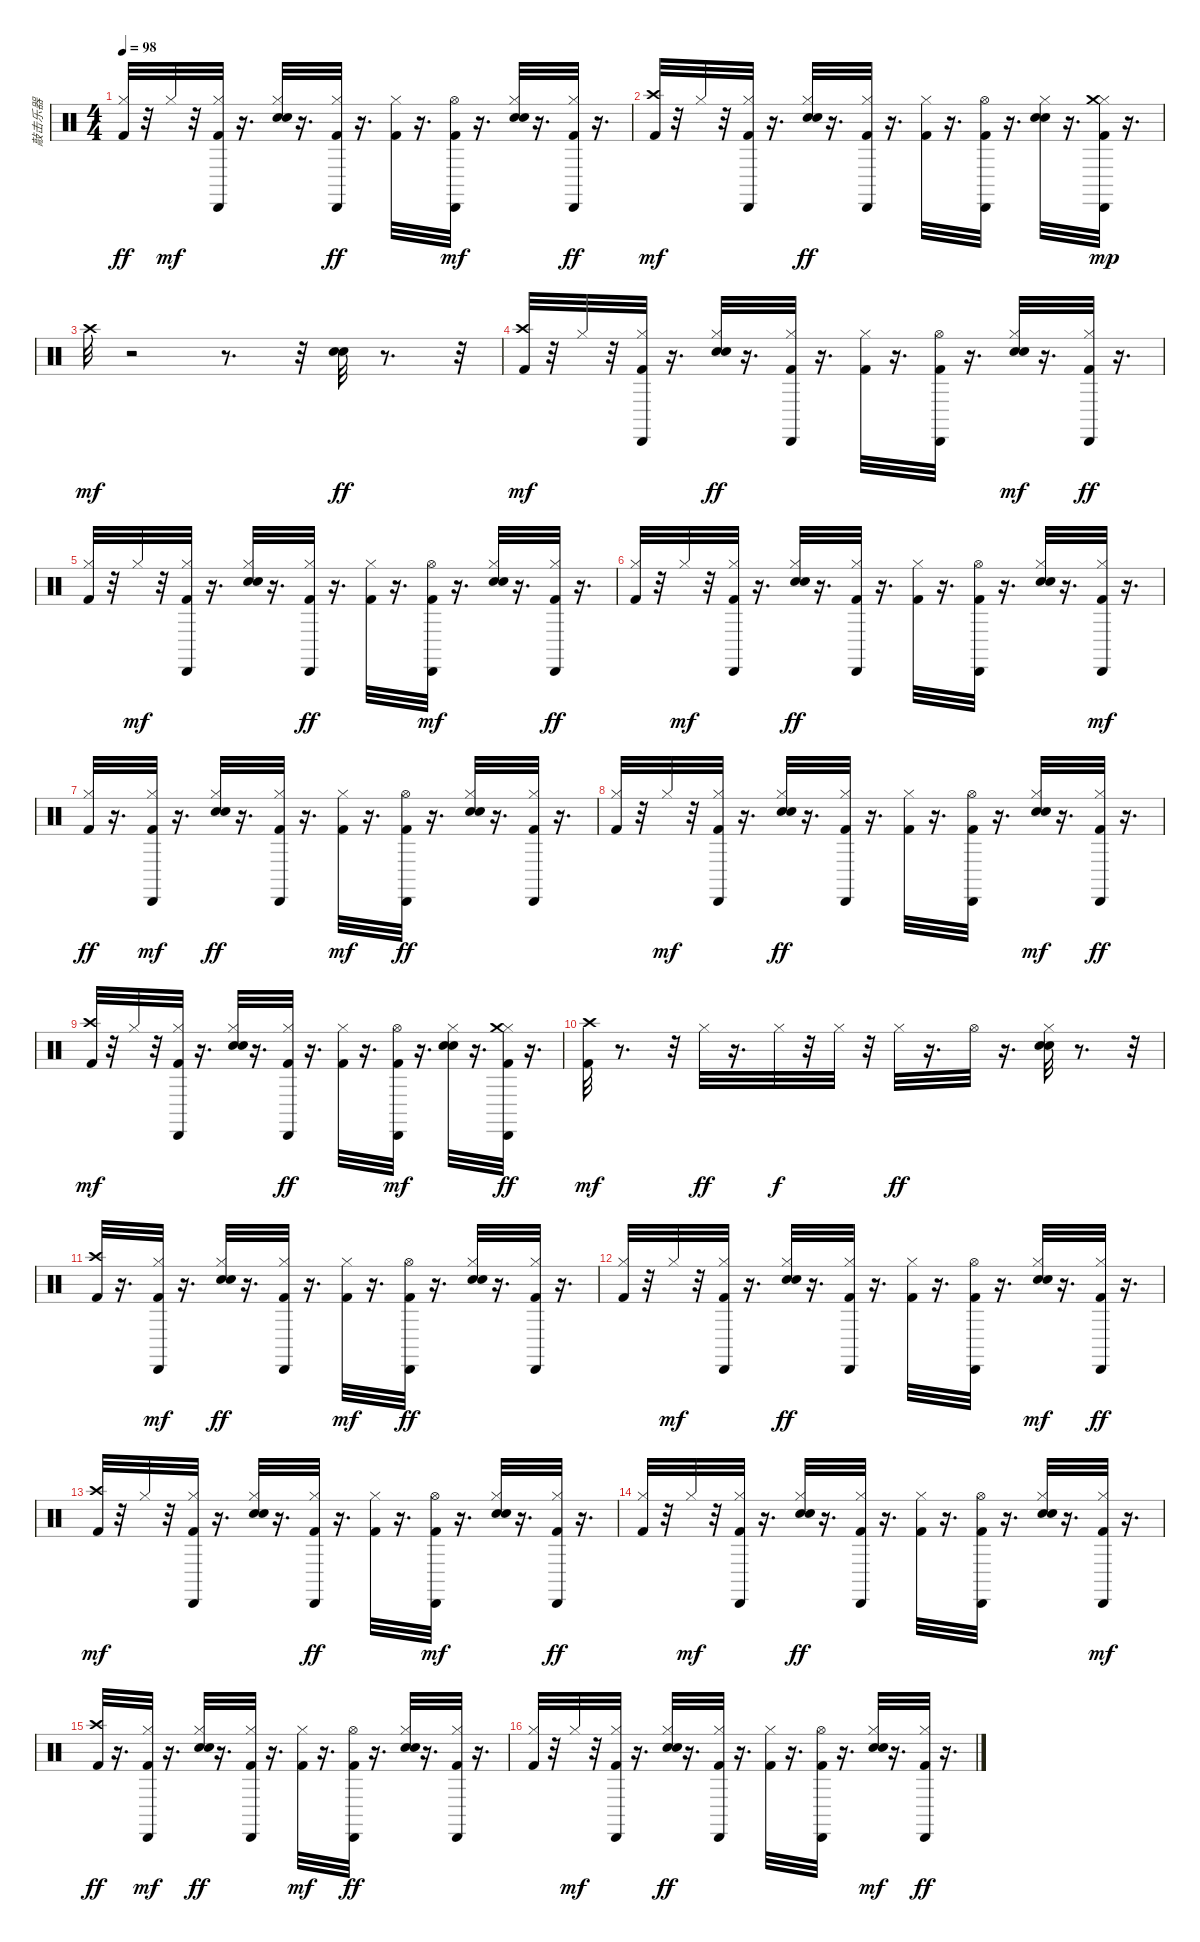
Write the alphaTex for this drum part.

\track ("敲击乐器" "敲击乐器") {instrument percussion}
\staff {score}
\articulation defaults
\ts (4 4)
\tempo 98
\clef neutral
\ks c
("Kick (hit) 2" "Hi-Hat (closed)").32{dy ff} r.32 "Hi-Hat (closed)".32{dy mf} r.32 ("Kick (hit) 2" "Hi-Hat (closed)" "Cabasa (hit)").32 r.16{d} ("Hand Clap (hit)" "Snare (hit) 2" "Hi-Hat (closed)").32 r.16{d} ("Hi-Hat (closed)" "Cabasa (hit)" "Kick (hit) 2").32{dy ff} r.16{d} ("Kick (hit) 2" "Hi-Hat (closed)").32 r.16{d} ("Hi-Hat (open)" "Kick (hit) 2" "Cabasa (hit)").32{dy mf} r.16{d} ("Hand Clap (hit)" "Snare (hit) 2" "Hi-Hat (closed)").32 r.16{d} ("Cabasa (hit)" "Kick (hit) 2" "Hi-Hat (closed)").32{dy ff} r.16{d} |
("Kick (hit) 2" "Crash high (hit)").32{dy mf} r.32 "Hi-Hat (closed)".32 r.32 ("Cabasa (hit)" "Kick (hit) 2" "Hi-Hat (closed)").32 r.16{d} ("Hi-Hat (closed)" "Hand Clap (hit)" "Snare (hit) 2").32{dy ff} r.16{d} ("Cabasa (hit)" "Hi-Hat (closed)" "Kick (hit) 2").32 r.16{d} ("Kick (hit) 2" "Hi-Hat (closed)").32 r.16{d} ("Kick (hit) 2" "Cabasa (hit)" "Hi-Hat (open)").32 r.16{d} ("Hi-Hat (closed)" "Hand Clap (hit)" "Snare (hit) 2").32 r.16{d} ("Kick (hit) 2" "Hi-Hat (closed)" "Cabasa (hit)" "Crash medium (hit)").32{dy mp} r.16{d} |
"Crash high (hit)".32{dy mf} r.2 r.8{d} r.32 ("Snare (hit) 2" "Hand Clap (hit)").32{dy ff} r.8{d} r.32 |
("Kick (hit) 2" "Crash high (hit)").32{dy mf} r.32 "Hi-Hat (closed)".32 r.32 ("Cabasa (hit)" "Kick (hit) 2" "Hi-Hat (closed)").32 r.16{d} ("Hi-Hat (closed)" "Hand Clap (hit)" "Snare (hit) 2").32{dy ff} r.16{d} ("Cabasa (hit)" "Hi-Hat (closed)" "Kick (hit) 2").32 r.16{d} ("Kick (hit) 2" "Hi-Hat (closed)").32 r.16{d} ("Cabasa (hit)" "Kick (hit) 2" "Hi-Hat (open)").32 r.16{d} ("Snare (hit) 2" "Hand Clap (hit)" "Hi-Hat (closed)").32{dy mf} r.16{d} ("Kick (hit) 2" "Cabasa (hit)" "Hi-Hat (closed)").32{dy ff} r.16{d} |
("Kick (hit) 2" "Hi-Hat (closed)").32 r.32 "Hi-Hat (closed)".32{dy mf} r.32 ("Kick (hit) 2" "Hi-Hat (closed)" "Cabasa (hit)").32 r.16{d} ("Hand Clap (hit)" "Snare (hit) 2" "Hi-Hat (closed)").32 r.16{d} ("Hi-Hat (closed)" "Cabasa (hit)" "Kick (hit) 2").32{dy ff} r.16{d} ("Kick (hit) 2" "Hi-Hat (closed)").32 r.16{d} ("Hi-Hat (open)" "Kick (hit) 2" "Cabasa (hit)").32{dy mf} r.16{d} ("Hand Clap (hit)" "Snare (hit) 2" "Hi-Hat (closed)").32 r.16{d} ("Cabasa (hit)" "Kick (hit) 2" "Hi-Hat (closed)").32{dy ff} r.16{d} |
("Kick (hit) 2" "Hi-Hat (closed)").32 r.32 "Hi-Hat (closed)".32{dy mf} r.32 ("Cabasa (hit)" "Kick (hit) 2" "Hi-Hat (closed)").32 r.16{d} ("Hi-Hat (closed)" "Hand Clap (hit)" "Snare (hit) 2").32{dy ff} r.16{d} ("Cabasa (hit)" "Hi-Hat (closed)" "Kick (hit) 2").32 r.16{d} ("Kick (hit) 2" "Hi-Hat (closed)").32 r.16{d} ("Kick (hit) 2" "Cabasa (hit)" "Hi-Hat (open)").32 r.16{d} ("Hi-Hat (closed)" "Hand Clap (hit)" "Snare (hit) 2").32 r.16{d} ("Kick (hit) 2" "Hi-Hat (closed)" "Cabasa (hit)").32{dy mf} r.16{d} |
("Hi-Hat (closed)" "Kick (hit) 2").32{dy ff} r.16{d} ("Cabasa (hit)" "Hi-Hat (closed)" "Kick (hit) 2").32{dy mf} r.16{d} ("Hi-Hat (closed)" "Snare (hit) 2" "Hand Clap (hit)").32{dy ff} r.16{d} ("Cabasa (hit)" "Kick (hit) 2" "Hi-Hat (closed)").32 r.16{d} ("Kick (hit) 2" "Hi-Hat (closed)").32{dy mf} r.16{d} ("Cabasa (hit)" "Kick (hit) 2" "Hi-Hat (open)").32{dy ff} r.16{d} ("Hi-Hat (closed)" "Snare (hit) 2" "Hand Clap (hit)").32 r.16{d} ("Cabasa (hit)" "Hi-Hat (closed)" "Kick (hit) 2").32 r.16{d} |
("Kick (hit) 2" "Hi-Hat (closed)").32 r.32 "Hi-Hat (closed)".32{dy mf} r.32 ("Cabasa (hit)" "Kick (hit) 2" "Hi-Hat (closed)").32 r.16{d} ("Hi-Hat (closed)" "Hand Clap (hit)" "Snare (hit) 2").32{dy ff} r.16{d} ("Cabasa (hit)" "Hi-Hat (closed)" "Kick (hit) 2").32 r.16{d} ("Kick (hit) 2" "Hi-Hat (closed)").32 r.16{d} ("Cabasa (hit)" "Kick (hit) 2" "Hi-Hat (open)").32 r.16{d} ("Snare (hit) 2" "Hand Clap (hit)" "Hi-Hat (closed)").32{dy mf} r.16{d} ("Kick (hit) 2" "Cabasa (hit)" "Hi-Hat (closed)").32{dy ff} r.16{d} |
("Kick (hit) 2" "Crash high (hit)").32{dy mf} r.32 "Hi-Hat (closed)".32 r.32 ("Kick (hit) 2" "Hi-Hat (closed)" "Cabasa (hit)").32 r.16{d} ("Hand Clap (hit)" "Snare (hit) 2" "Hi-Hat (closed)").32 r.16{d} ("Hi-Hat (closed)" "Cabasa (hit)" "Kick (hit) 2").32{dy ff} r.16{d} ("Kick (hit) 2" "Hi-Hat (closed)").32 r.16{d} ("Hi-Hat (open)" "Kick (hit) 2" "Cabasa (hit)").32{dy mf} r.16{d} ("Hand Clap (hit)" "Snare (hit) 2" "Hi-Hat (closed)").32 r.16{d} ("Hi-Hat (closed)" "Crash medium (hit)" "Cabasa (hit)" "Kick (hit) 2").32{dy ff} r.16{d} |
("Kick (hit) 2" "Crash high (hit)").32{dy mf} r.8{d} r.32 "Hi-Hat (closed)".32{dy ff} r.16{d} "Hi-Hat (closed)".32{dy f} r.32 "Hi-Hat (closed)".32 r.32 "Hi-Hat (closed)".32{dy ff} r.16{d} "Hi-Hat (open)".32 r.16{d} ("Hi-Hat (closed)" "Hand Clap (hit)" "Snare (hit) 2").32 r.8{d} r.32 |
("Crash high (hit)" "Kick (hit) 2").32 r.16{d} ("Cabasa (hit)" "Hi-Hat (closed)" "Kick (hit) 2").32{dy mf} r.16{d} ("Hi-Hat (closed)" "Snare (hit) 2" "Hand Clap (hit)").32{dy ff} r.16{d} ("Cabasa (hit)" "Kick (hit) 2" "Hi-Hat (closed)").32 r.16{d} ("Kick (hit) 2" "Hi-Hat (closed)").32{dy mf} r.16{d} ("Cabasa (hit)" "Kick (hit) 2" "Hi-Hat (open)").32{dy ff} r.16{d} ("Hi-Hat (closed)" "Snare (hit) 2" "Hand Clap (hit)").32 r.16{d} ("Cabasa (hit)" "Hi-Hat (closed)" "Kick (hit) 2").32 r.16{d} |
("Kick (hit) 2" "Hi-Hat (closed)").32 r.32 "Hi-Hat (closed)".32{dy mf} r.32 ("Cabasa (hit)" "Kick (hit) 2" "Hi-Hat (closed)").32 r.16{d} ("Hi-Hat (closed)" "Hand Clap (hit)" "Snare (hit) 2").32{dy ff} r.16{d} ("Cabasa (hit)" "Hi-Hat (closed)" "Kick (hit) 2").32 r.16{d} ("Kick (hit) 2" "Hi-Hat (closed)").32 r.16{d} ("Cabasa (hit)" "Kick (hit) 2" "Hi-Hat (open)").32 r.16{d} ("Snare (hit) 2" "Hand Clap (hit)" "Hi-Hat (closed)").32{dy mf} r.16{d} ("Kick (hit) 2" "Cabasa (hit)" "Hi-Hat (closed)").32{dy ff} r.16{d} |
("Kick (hit) 2" "Crash high (hit)").32{dy mf} r.32 "Hi-Hat (closed)".32 r.32 ("Kick (hit) 2" "Hi-Hat (closed)" "Cabasa (hit)").32 r.16{d} ("Hand Clap (hit)" "Snare (hit) 2" "Hi-Hat (closed)").32 r.16{d} ("Hi-Hat (closed)" "Cabasa (hit)" "Kick (hit) 2").32{dy ff} r.16{d} ("Kick (hit) 2" "Hi-Hat (closed)").32 r.16{d} ("Hi-Hat (open)" "Kick (hit) 2" "Cabasa (hit)").32{dy mf} r.16{d} ("Hand Clap (hit)" "Snare (hit) 2" "Hi-Hat (closed)").32 r.16{d} ("Cabasa (hit)" "Kick (hit) 2" "Hi-Hat (closed)").32{dy ff} r.16{d} |
("Kick (hit) 2" "Hi-Hat (closed)").32 r.32 "Hi-Hat (closed)".32{dy mf} r.32 ("Cabasa (hit)" "Kick (hit) 2" "Hi-Hat (closed)").32 r.16{d} ("Hi-Hat (closed)" "Hand Clap (hit)" "Snare (hit) 2").32{dy ff} r.16{d} ("Cabasa (hit)" "Hi-Hat (closed)" "Kick (hit) 2").32 r.16{d} ("Kick (hit) 2" "Hi-Hat (closed)").32 r.16{d} ("Kick (hit) 2" "Cabasa (hit)" "Hi-Hat (open)").32 r.16{d} ("Hi-Hat (closed)" "Hand Clap (hit)" "Snare (hit) 2").32 r.16{d} ("Kick (hit) 2" "Hi-Hat (closed)" "Cabasa (hit)").32{dy mf} r.16{d} |
("Crash high (hit)" "Kick (hit) 2").32{dy ff} r.16{d} ("Cabasa (hit)" "Hi-Hat (closed)" "Kick (hit) 2").32{dy mf} r.16{d} ("Hi-Hat (closed)" "Snare (hit) 2" "Hand Clap (hit)").32{dy ff} r.16{d} ("Cabasa (hit)" "Kick (hit) 2" "Hi-Hat (closed)").32 r.16{d} ("Kick (hit) 2" "Hi-Hat (closed)").32{dy mf} r.16{d} ("Cabasa (hit)" "Kick (hit) 2" "Hi-Hat (open)").32{dy ff} r.16{d} ("Hi-Hat (closed)" "Snare (hit) 2" "Hand Clap (hit)").32 r.16{d} ("Cabasa (hit)" "Hi-Hat (closed)" "Kick (hit) 2").32 r.16{d} |
("Kick (hit) 2" "Hi-Hat (closed)").32 r.32 "Hi-Hat (closed)".32{dy mf} r.32 ("Cabasa (hit)" "Kick (hit) 2" "Hi-Hat (closed)").32 r.16{d} ("Hi-Hat (closed)" "Hand Clap (hit)" "Snare (hit) 2").32{dy ff} r.16{d} ("Cabasa (hit)" "Hi-Hat (closed)" "Kick (hit) 2").32 r.16{d} ("Kick (hit) 2" "Hi-Hat (closed)").32 r.16{d} ("Cabasa (hit)" "Kick (hit) 2" "Hi-Hat (open)").32 r.16{d} ("Snare (hit) 2" "Hand Clap (hit)" "Hi-Hat (closed)").32{dy mf} r.16{d} ("Kick (hit) 2" "Cabasa (hit)" "Hi-Hat (closed)").32{dy ff} r.16{d}
